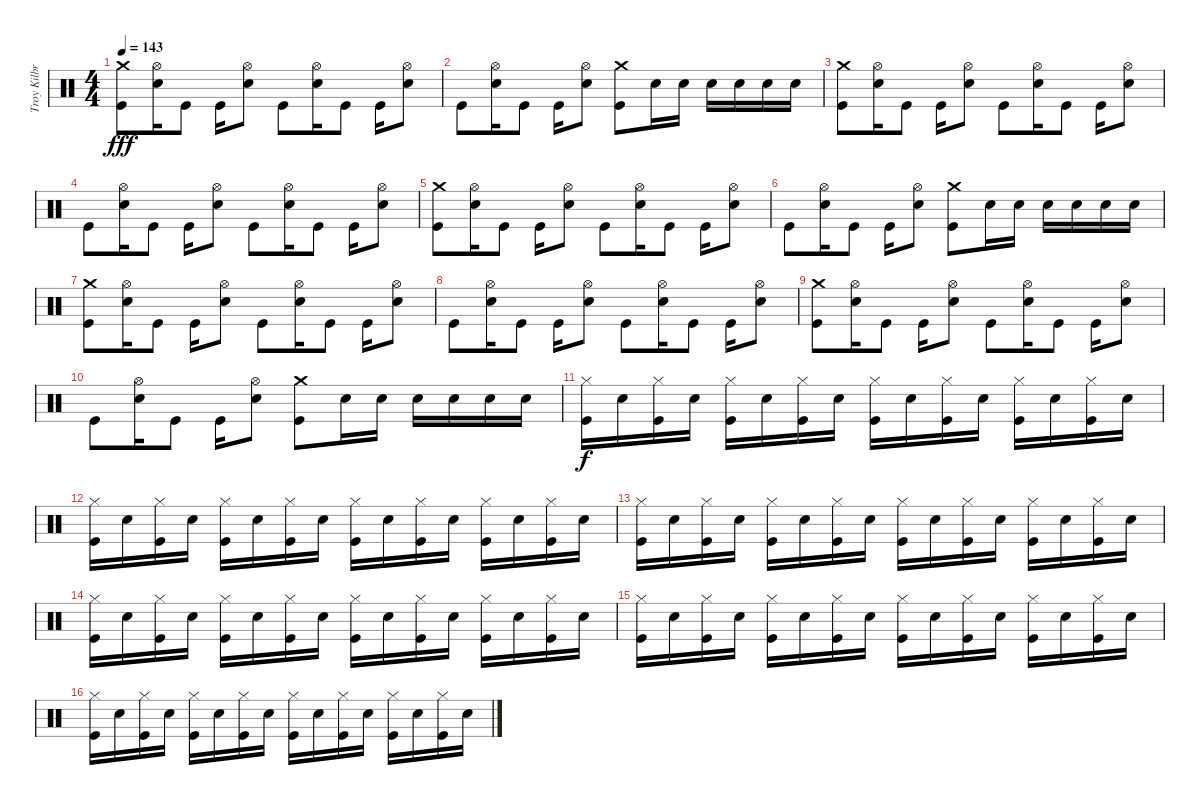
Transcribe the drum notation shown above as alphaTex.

\track ("Troy Kilbride" "Troy Kilbr") {instrument percussion}
\staff {score}
\articulation defaults
\ts (4 4)
\tempo 143
\clef neutral
\ks c
("Crash medium (hit)" "Kick (hit)").8{dy fff} ("Hi-Hat (open)" "Electric Snare (hit)").16 "Kick (hit)".8 "Kick (hit)".16 ("Hi-Hat (open)" "Electric Snare (hit)").8 "Kick (hit)".8 ("Hi-Hat (open)" "Electric Snare (hit)").16 "Kick (hit)".8 "Kick (hit)".16 ("Hi-Hat (open)" "Electric Snare (hit)").8 |
"Kick (hit)".8 ("Hi-Hat (open)" "Electric Snare (hit)").16 "Kick (hit)".8 "Kick (hit)".16 ("Hi-Hat (open)" "Electric Snare (hit)").8 ("Crash medium (hit)" "Kick (hit)").8 "Electric Snare (hit)".16 "Electric Snare (hit)".16 "Electric Snare (hit)".16 "Electric Snare (hit)".16 "Electric Snare (hit)".16 "Electric Snare (hit)".16 |
("Crash medium (hit)" "Kick (hit)").8 ("Hi-Hat (open)" "Electric Snare (hit)").16 "Kick (hit)".8 "Kick (hit)".16 ("Hi-Hat (open)" "Electric Snare (hit)").8 "Kick (hit)".8 ("Hi-Hat (open)" "Electric Snare (hit)").16 "Kick (hit)".8 "Kick (hit)".16 ("Hi-Hat (open)" "Electric Snare (hit)").8 |
"Kick (hit)".8 ("Hi-Hat (open)" "Electric Snare (hit)").16 "Kick (hit)".8 "Kick (hit)".16 ("Hi-Hat (open)" "Electric Snare (hit)").8 "Kick (hit)".8 ("Hi-Hat (open)" "Electric Snare (hit)").16 "Kick (hit)".8 "Kick (hit)".16 ("Hi-Hat (open)" "Electric Snare (hit)").8 |
("Crash medium (hit)" "Kick (hit)").8 ("Hi-Hat (open)" "Electric Snare (hit)").16 "Kick (hit)".8 "Kick (hit)".16 ("Hi-Hat (open)" "Electric Snare (hit)").8 "Kick (hit)".8 ("Hi-Hat (open)" "Electric Snare (hit)").16 "Kick (hit)".8 "Kick (hit)".16 ("Hi-Hat (open)" "Electric Snare (hit)").8 |
"Kick (hit)".8 ("Hi-Hat (open)" "Electric Snare (hit)").16 "Kick (hit)".8 "Kick (hit)".16 ("Hi-Hat (open)" "Electric Snare (hit)").8 ("Crash medium (hit)" "Kick (hit)").8 "Electric Snare (hit)".16 "Electric Snare (hit)".16 "Electric Snare (hit)".16 "Electric Snare (hit)".16 "Electric Snare (hit)".16 "Electric Snare (hit)".16 |
("Crash medium (hit)" "Kick (hit)").8 ("Hi-Hat (open)" "Electric Snare (hit)").16 "Kick (hit)".8 "Kick (hit)".16 ("Hi-Hat (open)" "Electric Snare (hit)").8 "Kick (hit)".8 ("Hi-Hat (open)" "Electric Snare (hit)").16 "Kick (hit)".8 "Kick (hit)".16 ("Hi-Hat (open)" "Electric Snare (hit)").8 |
"Kick (hit)".8 ("Hi-Hat (open)" "Electric Snare (hit)").16 "Kick (hit)".8 "Kick (hit)".16 ("Hi-Hat (open)" "Electric Snare (hit)").8 "Kick (hit)".8 ("Hi-Hat (open)" "Electric Snare (hit)").16 "Kick (hit)".8 "Kick (hit)".16 ("Hi-Hat (open)" "Electric Snare (hit)").8 |
("Crash medium (hit)" "Kick (hit)").8 ("Hi-Hat (open)" "Electric Snare (hit)").16 "Kick (hit)".8 "Kick (hit)".16 ("Hi-Hat (open)" "Electric Snare (hit)").8 "Kick (hit)".8 ("Hi-Hat (open)" "Electric Snare (hit)").16 "Kick (hit)".8 "Kick (hit)".16 ("Hi-Hat (open)" "Electric Snare (hit)").8 |
"Kick (hit)".8 ("Hi-Hat (open)" "Electric Snare (hit)").16 "Kick (hit)".8 "Kick (hit)".16 ("Hi-Hat (open)" "Electric Snare (hit)").8 ("Crash medium (hit)" "Kick (hit)").8 "Electric Snare (hit)".16 "Electric Snare (hit)".16 "Electric Snare (hit)".16 "Electric Snare (hit)".16 "Electric Snare (hit)".16 "Electric Snare (hit)".16 |
("Hi-Hat (closed)" "Kick (hit)").16{dy f} "Electric Snare (hit)".16 ("Hi-Hat (closed)" "Kick (hit)").16 "Electric Snare (hit)".16 ("Hi-Hat (closed)" "Kick (hit)").16 "Electric Snare (hit)".16 ("Hi-Hat (closed)" "Kick (hit)").16 "Electric Snare (hit)".16 ("Hi-Hat (closed)" "Kick (hit)").16 "Electric Snare (hit)".16 ("Hi-Hat (closed)" "Kick (hit)").16 "Electric Snare (hit)".16 ("Hi-Hat (closed)" "Kick (hit)").16 "Electric Snare (hit)".16 ("Hi-Hat (closed)" "Kick (hit)").16 "Electric Snare (hit)".16 |
("Hi-Hat (closed)" "Kick (hit)").16 "Electric Snare (hit)".16 ("Hi-Hat (closed)" "Kick (hit)").16 "Electric Snare (hit)".16 ("Hi-Hat (closed)" "Kick (hit)").16 "Electric Snare (hit)".16 ("Hi-Hat (closed)" "Kick (hit)").16 "Electric Snare (hit)".16 ("Hi-Hat (closed)" "Kick (hit)").16 "Electric Snare (hit)".16 ("Hi-Hat (closed)" "Kick (hit)").16 "Electric Snare (hit)".16 ("Hi-Hat (closed)" "Kick (hit)").16 "Electric Snare (hit)".16 ("Hi-Hat (closed)" "Kick (hit)").16 "Electric Snare (hit)".16 |
("Hi-Hat (closed)" "Kick (hit)").16 "Electric Snare (hit)".16 ("Hi-Hat (closed)" "Kick (hit)").16 "Electric Snare (hit)".16 ("Hi-Hat (closed)" "Kick (hit)").16 "Electric Snare (hit)".16 ("Hi-Hat (closed)" "Kick (hit)").16 "Electric Snare (hit)".16 ("Hi-Hat (closed)" "Kick (hit)").16 "Electric Snare (hit)".16 ("Hi-Hat (closed)" "Kick (hit)").16 "Electric Snare (hit)".16 ("Hi-Hat (closed)" "Kick (hit)").16 "Electric Snare (hit)".16 ("Hi-Hat (closed)" "Kick (hit)").16 "Electric Snare (hit)".16 |
("Hi-Hat (closed)" "Kick (hit)").16 "Electric Snare (hit)".16 ("Hi-Hat (closed)" "Kick (hit)").16 "Electric Snare (hit)".16 ("Hi-Hat (closed)" "Kick (hit)").16 "Electric Snare (hit)".16 ("Hi-Hat (closed)" "Kick (hit)").16 "Electric Snare (hit)".16 ("Hi-Hat (closed)" "Kick (hit)").16 "Electric Snare (hit)".16 ("Hi-Hat (closed)" "Kick (hit)").16 "Electric Snare (hit)".16 ("Hi-Hat (closed)" "Kick (hit)").16 "Electric Snare (hit)".16 ("Hi-Hat (closed)" "Kick (hit)").16 "Electric Snare (hit)".16 |
("Hi-Hat (closed)" "Kick (hit)").16 "Electric Snare (hit)".16 ("Hi-Hat (closed)" "Kick (hit)").16 "Electric Snare (hit)".16 ("Hi-Hat (closed)" "Kick (hit)").16 "Electric Snare (hit)".16 ("Hi-Hat (closed)" "Kick (hit)").16 "Electric Snare (hit)".16 ("Hi-Hat (closed)" "Kick (hit)").16 "Electric Snare (hit)".16 ("Hi-Hat (closed)" "Kick (hit)").16 "Electric Snare (hit)".16 ("Hi-Hat (closed)" "Kick (hit)").16 "Electric Snare (hit)".16 ("Hi-Hat (closed)" "Kick (hit)").16 "Electric Snare (hit)".16 |
("Hi-Hat (closed)" "Kick (hit)").16 "Electric Snare (hit)".16 ("Hi-Hat (closed)" "Kick (hit)").16 "Electric Snare (hit)".16 ("Hi-Hat (closed)" "Kick (hit)").16 "Electric Snare (hit)".16 ("Hi-Hat (closed)" "Kick (hit)").16 "Electric Snare (hit)".16 ("Hi-Hat (closed)" "Kick (hit)").16 "Electric Snare (hit)".16 ("Hi-Hat (closed)" "Kick (hit)").16 "Electric Snare (hit)".16 ("Hi-Hat (closed)" "Kick (hit)").16 "Electric Snare (hit)".16 ("Hi-Hat (closed)" "Kick (hit)").16 "Electric Snare (hit)".16
